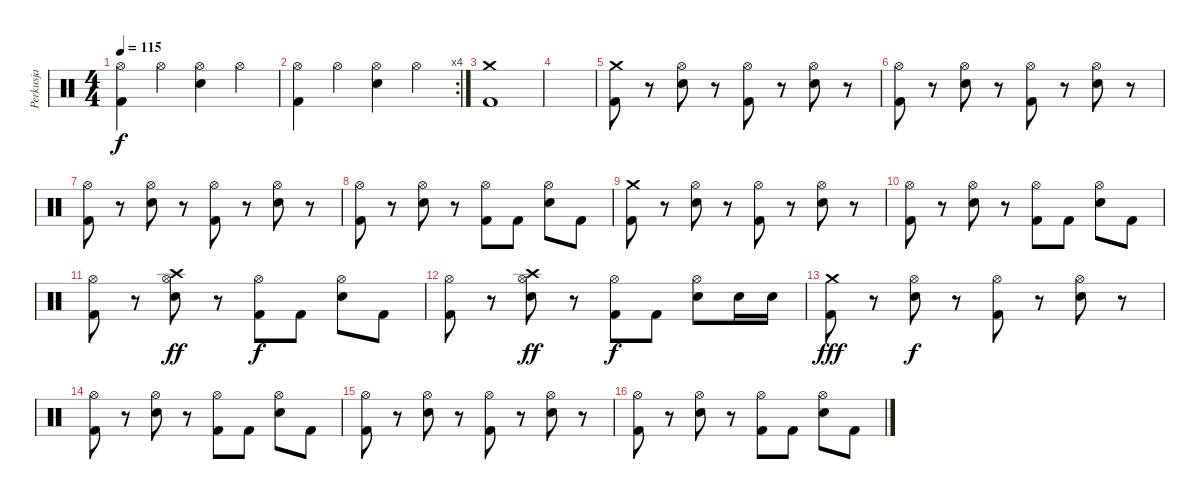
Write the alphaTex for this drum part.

\track ("Perkusja" "Perkusja") {instrument percussion}
\staff {score}
\articulation defaults
\ts (4 4)
\tempo 115
\clef neutral
\ks c
("Hi-Hat (open)" "Kick (hit) 2").4{dy f} "Hi-Hat (open)".4 ("Hi-Hat (open)" "Electric Snare (hit)").4 "Hi-Hat (open)".4 |
\rc 4
("Hi-Hat (open)" "Kick (hit) 2").4 "Hi-Hat (open)".4 ("Hi-Hat (open)" "Electric Snare (hit)").4 "Hi-Hat (open)".4 |
("Crash medium (hit)" "Kick (hit) 2").1 |
|
("Crash medium (hit)" "Kick (hit) 2").8 r.8 ("Hi-Hat (open)" "Electric Snare (hit)").8 r.8 ("Hi-Hat (open)" "Kick (hit) 2").8 r.8 ("Hi-Hat (open)" "Electric Snare (hit)").8 r.8 |
("Hi-Hat (open)" "Kick (hit) 2").8 r.8 ("Hi-Hat (open)" "Electric Snare (hit)").8 r.8 ("Hi-Hat (open)" "Kick (hit) 2").8 r.8 ("Hi-Hat (open)" "Electric Snare (hit)").8 r.8 |
("Hi-Hat (open)" "Kick (hit) 2").8 r.8 ("Hi-Hat (open)" "Electric Snare (hit)").8 r.8 ("Hi-Hat (open)" "Kick (hit) 2").8 r.8 ("Hi-Hat (open)" "Electric Snare (hit)").8 r.8 |
("Hi-Hat (open)" "Kick (hit) 2").8 r.8 ("Hi-Hat (open)" "Electric Snare (hit)").8 r.8 ("Hi-Hat (open)" "Kick (hit) 2").8 "Kick (hit) 2".8 ("Hi-Hat (open)" "Electric Snare (hit)").8 "Kick (hit) 2".8 |
("Crash medium (hit)" "Kick (hit) 2").8 r.8 ("Hi-Hat (open)" "Electric Snare (hit)").8 r.8 ("Hi-Hat (open)" "Kick (hit) 2").8 r.8 ("Hi-Hat (open)" "Electric Snare (hit)").8 r.8 |
("Hi-Hat (open)" "Kick (hit) 2").8 r.8 ("Hi-Hat (open)" "Electric Snare (hit)").8 r.8 ("Hi-Hat (open)" "Kick (hit) 2").8 "Kick (hit) 2".8 ("Hi-Hat (open)" "Electric Snare (hit)").8 "Kick (hit) 2".8 |
("Hi-Hat (open)" "Kick (hit) 2").8 r.8 ("Crash high (hit)" "Hi-Hat (open)" "Electric Snare (hit)").8{dy ff} r.8 ("Hi-Hat (open)" "Kick (hit) 2").8{dy f} "Kick (hit) 2".8 ("Hi-Hat (open)" "Electric Snare (hit)").8 "Kick (hit) 2".8 |
("Hi-Hat (open)" "Kick (hit) 2").8 r.8 ("Crash high (hit)" "Hi-Hat (open)" "Electric Snare (hit)").8{dy ff} r.8 ("Hi-Hat (open)" "Kick (hit) 2").8{dy f} "Kick (hit) 2".8 ("Hi-Hat (open)" "Electric Snare (hit)").8 "Electric Snare (hit)".16 "Electric Snare (hit)".16 |
("Crash medium (hit)" "Kick (hit) 2").8{dy fff} r.8 ("Hi-Hat (open)" "Electric Snare (hit)").8{dy f} r.8 ("Hi-Hat (open)" "Kick (hit) 2").8 r.8 ("Hi-Hat (open)" "Electric Snare (hit)").8 r.8 |
("Hi-Hat (open)" "Kick (hit) 2").8 r.8 ("Hi-Hat (open)" "Electric Snare (hit)").8 r.8 ("Hi-Hat (open)" "Kick (hit) 2").8 "Kick (hit) 2".8 ("Hi-Hat (open)" "Electric Snare (hit)").8 "Kick (hit) 2".8 |
("Hi-Hat (open)" "Kick (hit) 2").8 r.8 ("Hi-Hat (open)" "Electric Snare (hit)").8 r.8 ("Hi-Hat (open)" "Kick (hit) 2").8 r.8 ("Hi-Hat (open)" "Electric Snare (hit)").8 r.8 |
("Hi-Hat (open)" "Kick (hit) 2").8 r.8 ("Hi-Hat (open)" "Electric Snare (hit)").8 r.8 ("Hi-Hat (open)" "Kick (hit) 2").8 "Kick (hit) 2".8 ("Hi-Hat (open)" "Electric Snare (hit)").8 "Kick (hit) 2".8
